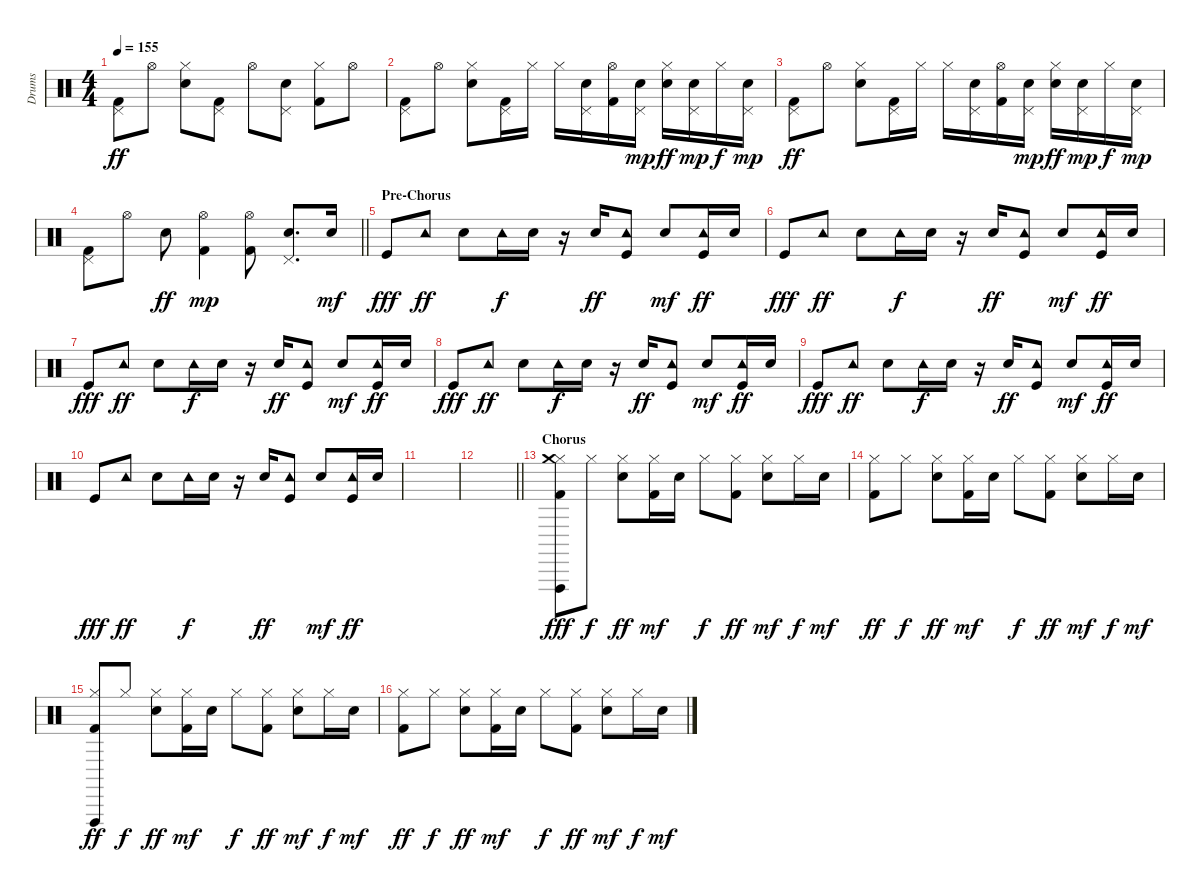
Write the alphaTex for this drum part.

\track ("Drums" "Drums") {instrument percussion}
\staff {score}
\articulation defaults
\ts (4 4)
\tempo 155
\clef neutral
\ks c
("Kick (hit) 2" "Pedal Hi-Hat (hit)").8{dy ff} "Hi-Hat (open)".8 ("Electric Snare (hit)" "Hi-Hat (closed)").8 ("Kick (hit) 2" "Pedal Hi-Hat (hit)").8 "Hi-Hat (open)".8 ("Electric Snare (hit)" "Pedal Hi-Hat (hit)").8 ("Kick (hit) 2" "Hi-Hat (closed)").8 "Hi-Hat (open)".8 |
("Kick (hit) 2" "Pedal Hi-Hat (hit)").8 "Hi-Hat (open)".8 ("Electric Snare (hit)" "Hi-Hat (closed)").8 ("Kick (hit) 2" "Pedal Hi-Hat (hit)").16 "Hi-Hat (closed)".16 "Hi-Hat (closed)".16 ("Snare (hit) 2" "Pedal Hi-Hat (hit)").16 ("Kick (hit) 2" "Hi-Hat (open)").16 ("Snare (hit) 2" "Pedal Hi-Hat (hit)").16{dy mp} ("Electric Snare (hit)" "Hi-Hat (closed)").16{dy ff} ("Snare (hit) 2" "Pedal Hi-Hat (hit)").16{dy mp} "Hi-Hat (closed)".16{dy f} ("Snare (hit) 2" "Pedal Hi-Hat (hit)").16{dy mp} |
("Kick (hit) 2" "Pedal Hi-Hat (hit)").8{dy ff} "Hi-Hat (open)".8 ("Electric Snare (hit)" "Hi-Hat (closed)").8 ("Kick (hit) 2" "Pedal Hi-Hat (hit)").16 "Hi-Hat (closed)".16 "Hi-Hat (closed)".16 ("Snare (hit) 2" "Pedal Hi-Hat (hit)").16 ("Kick (hit) 2" "Hi-Hat (open)").16 ("Snare (hit) 2" "Pedal Hi-Hat (hit)").16{dy mp} ("Electric Snare (hit)" "Hi-Hat (closed)").16{dy ff} ("Snare (hit) 2" "Pedal Hi-Hat (hit)").16{dy mp} "Hi-Hat (closed)".16{dy f} ("Snare (hit) 2" "Pedal Hi-Hat (hit)").16{dy mp} |
\barLineRight lightlight
("Kick (hit) 2" "Pedal Hi-Hat (hit)").8 "Hi-Hat (open)".8 "Electric Snare (hit)".8{dy ff} ("Kick (hit) 2" "Hi-Hat (open)").4{dy mp} ("Kick (hit) 2" "Hi-Hat (open)").8 ("Electric Snare (hit)" "Pedal Hi-Hat (hit)").8{d} "Electric Snare (hit)".16{dy mf} |
\section ("" "Pre-Chorus")
"Kick (hit)".8{dy fff} "Tambourine (hit)".8{dy ff} "Electric Snare (hit)".8 "Tambourine (hit)".16{dy f} "Electric Snare (hit)".16 r.16 "Electric Snare (hit)".16{dy ff} ("Kick (hit)" "Tambourine (hit)").8 "Electric Snare (hit)".8{dy mf} ("Kick (hit)" "Tambourine (hit)").16{dy ff} "Electric Snare (hit)".16 |
"Kick (hit)".8{dy fff} "Tambourine (hit)".8{dy ff} "Electric Snare (hit)".8 "Tambourine (hit)".16{dy f} "Electric Snare (hit)".16 r.16 "Electric Snare (hit)".16{dy ff} ("Kick (hit)" "Tambourine (hit)").8 "Electric Snare (hit)".8{dy mf} ("Kick (hit)" "Tambourine (hit)").16{dy ff} "Electric Snare (hit)".16 |
"Kick (hit)".8{dy fff} "Tambourine (hit)".8{dy ff} "Electric Snare (hit)".8 "Tambourine (hit)".16{dy f} "Electric Snare (hit)".16 r.16 "Electric Snare (hit)".16{dy ff} ("Kick (hit)" "Tambourine (hit)").8 "Electric Snare (hit)".8{dy mf} ("Kick (hit)" "Tambourine (hit)").16{dy ff} "Electric Snare (hit)".16 |
"Kick (hit)".8{dy fff} "Tambourine (hit)".8{dy ff} "Electric Snare (hit)".8 "Tambourine (hit)".16{dy f} "Electric Snare (hit)".16 r.16 "Electric Snare (hit)".16{dy ff} ("Kick (hit)" "Tambourine (hit)").8 "Electric Snare (hit)".8{dy mf} ("Kick (hit)" "Tambourine (hit)").16{dy ff} "Electric Snare (hit)".16 |
"Kick (hit)".8{dy fff} "Tambourine (hit)".8{dy ff} "Electric Snare (hit)".8 "Tambourine (hit)".16{dy f} "Electric Snare (hit)".16 r.16 "Electric Snare (hit)".16{dy ff} ("Kick (hit)" "Tambourine (hit)").8 "Electric Snare (hit)".8{dy mf} ("Kick (hit)" "Tambourine (hit)").16{dy ff} "Electric Snare (hit)".16 |
"Kick (hit)".8{dy fff} "Tambourine (hit)".8{dy ff} "Electric Snare (hit)".8 "Tambourine (hit)".16{dy f} "Electric Snare (hit)".16 r.16 "Electric Snare (hit)".16{dy ff} ("Kick (hit)" "Tambourine (hit)").8 "Electric Snare (hit)".8{dy mf} ("Kick (hit)" "Tambourine (hit)").16{dy ff} "Electric Snare (hit)".16 |
|
\barLineRight lightlight
|
\section ("" "Chorus")
("Kick (hit) 2" "Hi-Hat (closed)" "Vibraslap (hit)" "Crash medium (hit)").8{dy fff} "Hi-Hat (closed)".8{dy f} ("Snare (hit) 2" "Hi-Hat (closed)").8{dy ff} ("Kick (hit) 2" "Hi-Hat (closed)").16{dy mf} "Snare (hit) 2".16 "Hi-Hat (closed)".8{dy f} ("Kick (hit) 2" "Hi-Hat (closed)").8{dy ff} ("Snare (hit) 2" "Hi-Hat (closed)").8{dy mf} "Hi-Hat (closed)".16{dy f} "Snare (hit) 2".16{dy mf} |
("Kick (hit) 2" "Hi-Hat (closed)").8{dy ff} "Hi-Hat (closed)".8{dy f} ("Snare (hit) 2" "Hi-Hat (closed)").8{dy ff} ("Kick (hit) 2" "Hi-Hat (closed)").16{dy mf} "Snare (hit) 2".16 "Hi-Hat (closed)".8{dy f} ("Kick (hit) 2" "Hi-Hat (closed)").8{dy ff} ("Snare (hit) 2" "Hi-Hat (closed)").8{dy mf} "Hi-Hat (closed)".16{dy f} "Snare (hit) 2".16{dy mf} |
("Kick (hit) 2" "Hi-Hat (closed)" "Vibraslap (hit)").8{dy ff} "Hi-Hat (closed)".8{dy f} ("Snare (hit) 2" "Hi-Hat (closed)").8{dy ff} ("Kick (hit) 2" "Hi-Hat (closed)").16{dy mf} "Snare (hit) 2".16 "Hi-Hat (closed)".8{dy f} ("Kick (hit) 2" "Hi-Hat (closed)").8{dy ff} ("Snare (hit) 2" "Hi-Hat (closed)").8{dy mf} "Hi-Hat (closed)".16{dy f} "Snare (hit) 2".16{dy mf} |
("Kick (hit) 2" "Hi-Hat (closed)").8{dy ff} "Hi-Hat (closed)".8{dy f} ("Snare (hit) 2" "Hi-Hat (closed)").8{dy ff} ("Kick (hit) 2" "Hi-Hat (closed)").16{dy mf} "Snare (hit) 2".16 "Hi-Hat (closed)".8{dy f} ("Kick (hit) 2" "Hi-Hat (closed)").8{dy ff} ("Snare (hit) 2" "Hi-Hat (closed)").8{dy mf} "Hi-Hat (closed)".16{dy f} "Snare (hit) 2".16{dy mf}
